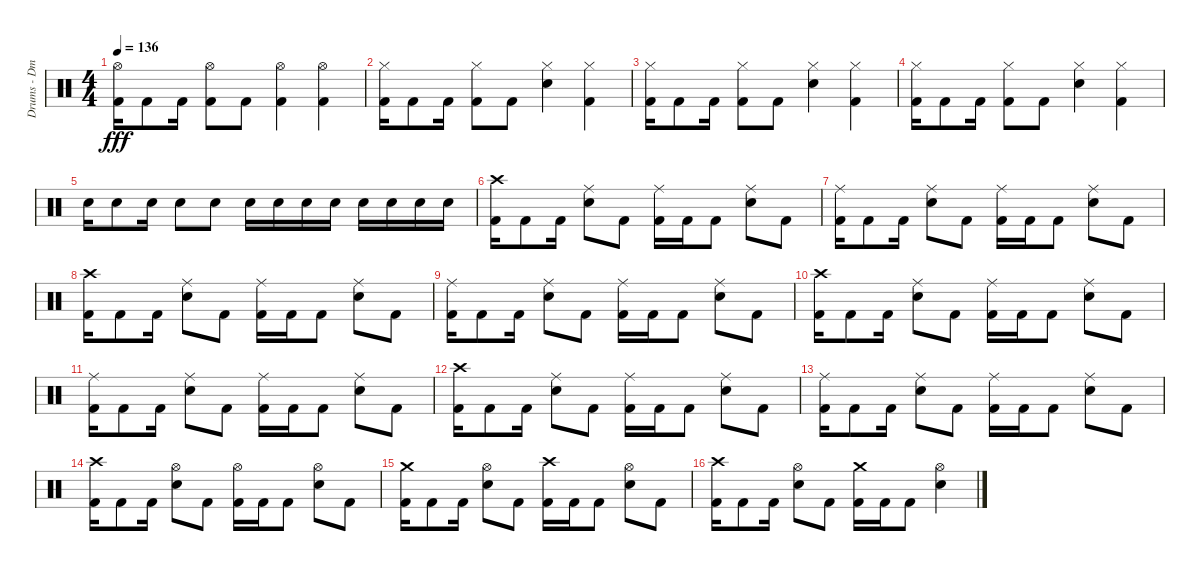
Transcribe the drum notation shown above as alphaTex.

\track ("Drums - Dmitriy Krivenkov" "Drums - Dm") {instrument percussion}
\staff {score}
\articulation defaults
\ts (4 4)
\tempo 136
\clef neutral
\ks c
("Hi-Hat (open)" "Kick (hit) 2").16{dy fff} "Kick (hit) 2".8 "Kick (hit) 2".16 ("Hi-Hat (open)" "Kick (hit) 2").8 "Kick (hit) 2".8 ("Hi-Hat (open)" "Kick (hit) 2").4 ("Hi-Hat (open)" "Kick (hit) 2").4 |
("Hi-Hat (closed)" "Kick (hit) 2").16 "Kick (hit) 2".8 "Kick (hit) 2".16 ("Hi-Hat (closed)" "Kick (hit) 2").8 "Kick (hit) 2".8 ("Hi-Hat (closed)" "Electric Snare (hit)").4 ("Hi-Hat (closed)" "Kick (hit) 2").4 |
("Hi-Hat (closed)" "Kick (hit) 2").16 "Kick (hit) 2".8 "Kick (hit) 2".16 ("Hi-Hat (closed)" "Kick (hit) 2").8 "Kick (hit) 2".8 ("Hi-Hat (closed)" "Electric Snare (hit)").4 ("Hi-Hat (closed)" "Kick (hit) 2").4 |
("Hi-Hat (closed)" "Kick (hit) 2").16 "Kick (hit) 2".8 "Kick (hit) 2".16 ("Hi-Hat (closed)" "Kick (hit) 2").8 "Kick (hit) 2".8 ("Hi-Hat (closed)" "Electric Snare (hit)").4 ("Hi-Hat (closed)" "Kick (hit) 2").4 |
"Electric Snare (hit)".16 "Electric Snare (hit)".8 "Electric Snare (hit)".16 "Electric Snare (hit)".8 "Electric Snare (hit)".8 "Electric Snare (hit)".16 "Electric Snare (hit)".16 "Electric Snare (hit)".16 "Electric Snare (hit)".16 "Electric Snare (hit)".16 "Electric Snare (hit)".16 "Electric Snare (hit)".16 "Electric Snare (hit)".16 |
("Crash high (hit)" "Kick (hit) 2").16 "Kick (hit) 2".8 "Kick (hit) 2".16 ("Ride (middle)" "Electric Snare (hit)").8 "Kick (hit) 2".8 ("Ride (middle)" "Kick (hit) 2").16 "Kick (hit) 2".16 "Kick (hit) 2".8 ("Ride (middle)" "Electric Snare (hit)").8 "Kick (hit) 2".8 |
("Ride (middle)" "Kick (hit) 2").16 "Kick (hit) 2".8 "Kick (hit) 2".16 ("Ride (middle)" "Electric Snare (hit)").8 "Kick (hit) 2".8 ("Ride (middle)" "Kick (hit) 2").16 "Kick (hit) 2".16 "Kick (hit) 2".8 ("Ride (middle)" "Electric Snare (hit)").8 "Kick (hit) 2".8 |
("Crash high (hit)" "Kick (hit) 2").16 "Kick (hit) 2".8 "Kick (hit) 2".16 ("Ride (middle)" "Electric Snare (hit)").8 "Kick (hit) 2".8 ("Ride (middle)" "Kick (hit) 2").16 "Kick (hit) 2".16 "Kick (hit) 2".8 ("Ride (middle)" "Electric Snare (hit)").8 "Kick (hit) 2".8 |
("Ride (middle)" "Kick (hit) 2").16 "Kick (hit) 2".8 "Kick (hit) 2".16 ("Ride (middle)" "Electric Snare (hit)").8 "Kick (hit) 2".8 ("Ride (middle)" "Kick (hit) 2").16 "Kick (hit) 2".16 "Kick (hit) 2".8 ("Ride (middle)" "Electric Snare (hit)").8 "Kick (hit) 2".8 |
("Crash high (hit)" "Kick (hit) 2").16 "Kick (hit) 2".8 "Kick (hit) 2".16 ("Ride (middle)" "Electric Snare (hit)").8 "Kick (hit) 2".8 ("Ride (middle)" "Kick (hit) 2").16 "Kick (hit) 2".16 "Kick (hit) 2".8 ("Ride (middle)" "Electric Snare (hit)").8 "Kick (hit) 2".8 |
("Ride (middle)" "Kick (hit) 2").16 "Kick (hit) 2".8 "Kick (hit) 2".16 ("Ride (middle)" "Electric Snare (hit)").8 "Kick (hit) 2".8 ("Ride (middle)" "Kick (hit) 2").16 "Kick (hit) 2".16 "Kick (hit) 2".8 ("Ride (middle)" "Electric Snare (hit)").8 "Kick (hit) 2".8 |
("Crash high (hit)" "Kick (hit) 2").16 "Kick (hit) 2".8 "Kick (hit) 2".16 ("Ride (middle)" "Electric Snare (hit)").8 "Kick (hit) 2".8 ("Ride (middle)" "Kick (hit) 2").16 "Kick (hit) 2".16 "Kick (hit) 2".8 ("Ride (middle)" "Electric Snare (hit)").8 "Kick (hit) 2".8 |
("Ride (middle)" "Kick (hit) 2").16 "Kick (hit) 2".8 "Kick (hit) 2".16 ("Ride (middle)" "Electric Snare (hit)").8 "Kick (hit) 2".8 ("Ride (middle)" "Kick (hit) 2").16 "Kick (hit) 2".16 "Kick (hit) 2".8 ("Ride (middle)" "Electric Snare (hit)").8 "Kick (hit) 2".8 |
("Crash high (hit)" "Kick (hit) 2").16 "Kick (hit) 2".8 "Kick (hit) 2".16 ("Hi-Hat (open)" "Electric Snare (hit)").8 "Kick (hit) 2".8 ("Hi-Hat (open)" "Kick (hit) 2").16 "Kick (hit) 2".16 "Kick (hit) 2".8 ("Hi-Hat (open)" "Electric Snare (hit)").8 "Kick (hit) 2".8 |
("Kick (hit) 2" "Crash medium (hit)").16 "Kick (hit) 2".8 "Kick (hit) 2".16 ("Hi-Hat (open)" "Electric Snare (hit)").8 "Kick (hit) 2".8 ("Kick (hit) 2" "Crash high (hit)").16 "Kick (hit) 2".16 "Kick (hit) 2".8 ("Hi-Hat (open)" "Electric Snare (hit)").8 "Kick (hit) 2".8 |
("Kick (hit) 2" "Crash high (hit)").16 "Kick (hit) 2".8 "Kick (hit) 2".16 ("Electric Snare (hit)" "Hi-Hat (open)").8 "Kick (hit) 2".8 ("Kick (hit) 2" "Crash medium (hit)").16 "Kick (hit) 2".16 "Kick (hit) 2".8 ("Electric Snare (hit)" "Hi-Hat (open)").4
